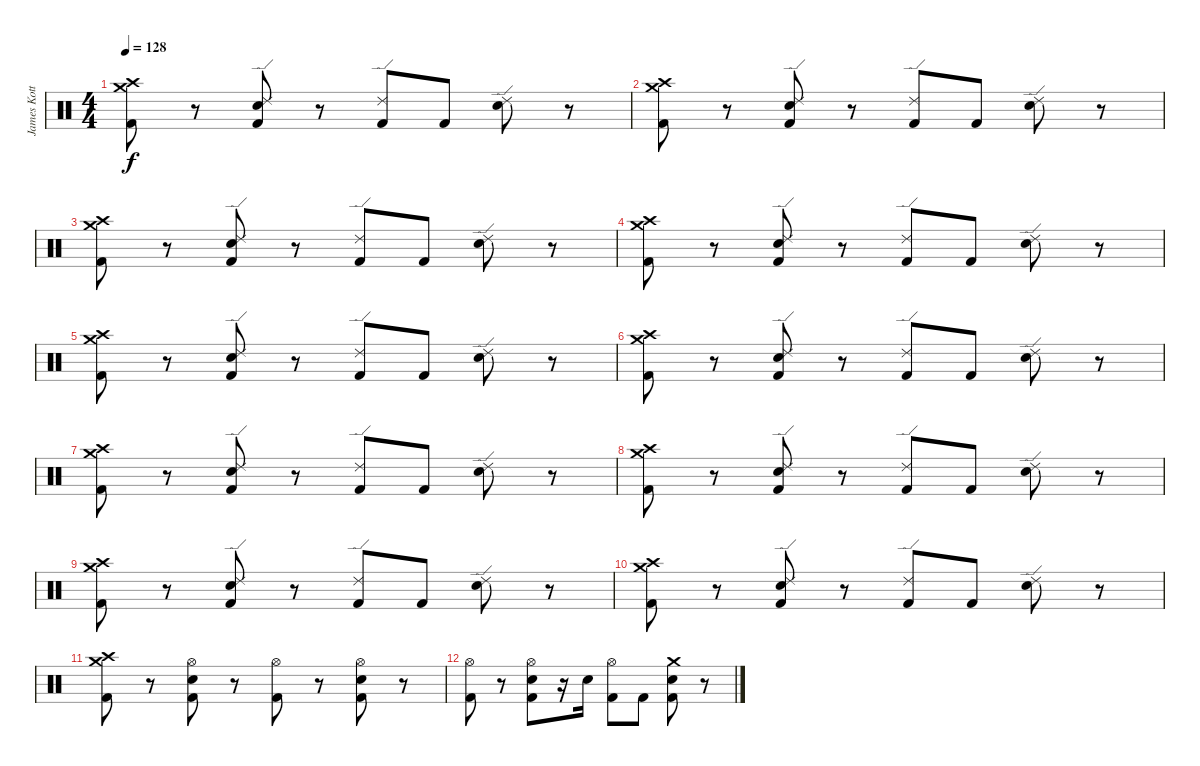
\track ("James Kottak" "James Kott") {instrument percussion}
\staff {score}
\articulation defaults
\ts (4 4)
\tempo 128
\clef neutral
\ks c
("Crash high (hit)" "Crash medium (hit)" "Kick (hit) 2").8{dy f} r.8 ("Ride (edge) 2" "Electric Snare (hit)" "Kick (hit) 2").8 r.8 ("Ride (edge) 2" "Kick (hit) 2").8 "Kick (hit) 2".8 ("Ride (edge) 2" "Electric Snare (hit)").8 r.8 |
("Crash high (hit)" "Crash medium (hit)" "Kick (hit) 2").8 r.8 ("Ride (edge) 2" "Electric Snare (hit)" "Kick (hit) 2").8 r.8 ("Ride (edge) 2" "Kick (hit) 2").8 "Kick (hit) 2".8 ("Ride (edge) 2" "Electric Snare (hit)").8 r.8 |
("Crash high (hit)" "Crash medium (hit)" "Kick (hit) 2").8 r.8 ("Ride (edge) 2" "Electric Snare (hit)" "Kick (hit) 2").8 r.8 ("Ride (edge) 2" "Kick (hit) 2").8 "Kick (hit) 2".8 ("Ride (edge) 2" "Electric Snare (hit)").8 r.8 |
("Crash high (hit)" "Crash medium (hit)" "Kick (hit) 2").8 r.8 ("Ride (edge) 2" "Electric Snare (hit)" "Kick (hit) 2").8 r.8 ("Ride (edge) 2" "Kick (hit) 2").8 "Kick (hit) 2".8 ("Ride (edge) 2" "Electric Snare (hit)").8 r.8 |
("Crash high (hit)" "Crash medium (hit)" "Kick (hit) 2").8 r.8 ("Ride (edge) 2" "Electric Snare (hit)" "Kick (hit) 2").8 r.8 ("Ride (edge) 2" "Kick (hit) 2").8 "Kick (hit) 2".8 ("Ride (edge) 2" "Electric Snare (hit)").8 r.8 |
("Crash high (hit)" "Crash medium (hit)" "Kick (hit) 2").8 r.8 ("Ride (edge) 2" "Electric Snare (hit)" "Kick (hit) 2").8 r.8 ("Ride (edge) 2" "Kick (hit) 2").8 "Kick (hit) 2".8 ("Ride (edge) 2" "Electric Snare (hit)").8 r.8 |
("Crash high (hit)" "Crash medium (hit)" "Kick (hit) 2").8 r.8 ("Ride (edge) 2" "Electric Snare (hit)" "Kick (hit) 2").8 r.8 ("Ride (edge) 2" "Kick (hit) 2").8 "Kick (hit) 2".8 ("Ride (edge) 2" "Electric Snare (hit)").8 r.8 |
("Crash high (hit)" "Crash medium (hit)" "Kick (hit) 2").8 r.8 ("Ride (edge) 2" "Electric Snare (hit)" "Kick (hit) 2").8 r.8 ("Ride (edge) 2" "Kick (hit) 2").8 "Kick (hit) 2".8 ("Ride (edge) 2" "Electric Snare (hit)").8 r.8 |
("Crash high (hit)" "Crash medium (hit)" "Kick (hit) 2").8 r.8 ("Ride (edge) 2" "Electric Snare (hit)" "Kick (hit) 2").8 r.8 ("Ride (edge) 2" "Kick (hit) 2").8 "Kick (hit) 2".8 ("Ride (edge) 2" "Electric Snare (hit)").8 r.8 |
("Crash high (hit)" "Crash medium (hit)" "Kick (hit) 2").8 r.8 ("Ride (edge) 2" "Electric Snare (hit)" "Kick (hit) 2").8 r.8 ("Ride (edge) 2" "Kick (hit) 2").8 "Kick (hit) 2".8 ("Ride (edge) 2" "Electric Snare (hit)").8 r.8 |
("Crash medium (hit)" "Crash high (hit)" "Kick (hit) 2").8 r.8 ("Hi-Hat (open)" "Electric Snare (hit)" "Kick (hit) 2").8 r.8 ("Hi-Hat (open)" "Kick (hit) 2").8 r.8 ("Hi-Hat (open)" "Electric Snare (hit)" "Kick (hit) 2").8 r.8 |
("Hi-Hat (open)" "Kick (hit) 2").8 r.8 ("Hi-Hat (open)" "Electric Snare (hit)" "Kick (hit) 2").8 r.16 "Electric Snare (hit)".16 ("Hi-Hat (open)" "Kick (hit) 2").8 "Kick (hit) 2".8 ("Crash medium (hit)" "Electric Snare (hit)" "Kick (hit) 2").8 r.8
